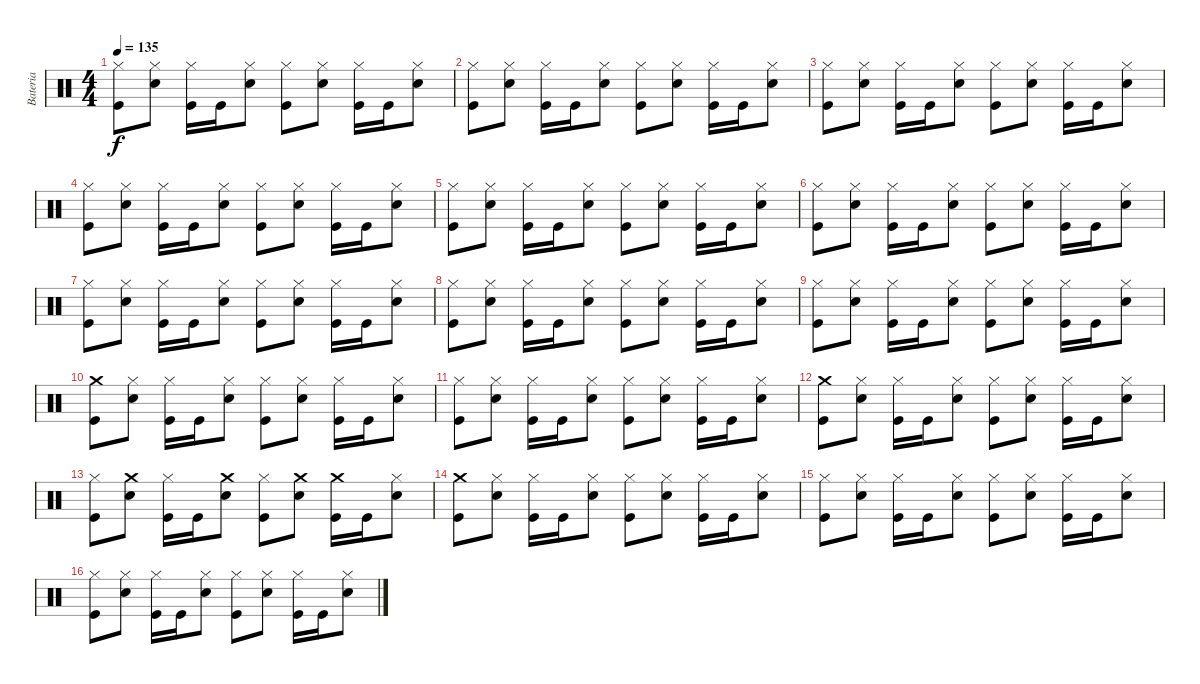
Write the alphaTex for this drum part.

\track ("Bateria" "Bateria") {instrument percussion}
\staff {score}
\articulation defaults
\ts (4 4)
\tempo 135
\clef neutral
\ks c
("Kick (hit)" "Hi-Hat (closed)").8{dy f} ("Snare (hit) 2" "Hi-Hat (closed)").8 ("Kick (hit)" "Hi-Hat (closed)").16 "Kick (hit)".16 ("Snare (hit) 2" "Hi-Hat (closed)").8 ("Kick (hit)" "Hi-Hat (closed)").8 ("Snare (hit) 2" "Hi-Hat (closed)").8 ("Kick (hit)" "Hi-Hat (closed)").16 "Kick (hit)".16 ("Snare (hit) 2" "Hi-Hat (closed)").8 |
("Kick (hit)" "Hi-Hat (closed)").8 ("Snare (hit) 2" "Hi-Hat (closed)").8 ("Kick (hit)" "Hi-Hat (closed)").16 "Kick (hit)".16 ("Snare (hit) 2" "Hi-Hat (closed)").8 ("Kick (hit)" "Hi-Hat (closed)").8 ("Snare (hit) 2" "Hi-Hat (closed)").8 ("Kick (hit)" "Hi-Hat (closed)").16 "Kick (hit)".16 ("Snare (hit) 2" "Hi-Hat (closed)").8 |
("Kick (hit)" "Hi-Hat (closed)").8 ("Snare (hit) 2" "Hi-Hat (closed)").8 ("Kick (hit)" "Hi-Hat (closed)").16 "Kick (hit)".16 ("Snare (hit) 2" "Hi-Hat (closed)").8 ("Kick (hit)" "Hi-Hat (closed)").8 ("Snare (hit) 2" "Hi-Hat (closed)").8 ("Kick (hit)" "Hi-Hat (closed)").16 "Kick (hit)".16 ("Snare (hit) 2" "Hi-Hat (closed)").8 |
("Kick (hit)" "Hi-Hat (closed)").8 ("Snare (hit) 2" "Hi-Hat (closed)").8 ("Kick (hit)" "Hi-Hat (closed)").16 "Kick (hit)".16 ("Snare (hit) 2" "Hi-Hat (closed)").8 ("Kick (hit)" "Hi-Hat (closed)").8 ("Snare (hit) 2" "Hi-Hat (closed)").8 ("Kick (hit)" "Hi-Hat (closed)").16 "Kick (hit)".16 ("Snare (hit) 2" "Hi-Hat (closed)").8 |
("Kick (hit)" "Hi-Hat (closed)").8 ("Snare (hit) 2" "Hi-Hat (closed)").8 ("Kick (hit)" "Hi-Hat (closed)").16 "Kick (hit)".16 ("Snare (hit) 2" "Hi-Hat (closed)").8 ("Kick (hit)" "Hi-Hat (closed)").8 ("Snare (hit) 2" "Hi-Hat (closed)").8 ("Kick (hit)" "Hi-Hat (closed)").16 "Kick (hit)".16 ("Snare (hit) 2" "Hi-Hat (closed)").8 |
("Kick (hit)" "Hi-Hat (closed)").8 ("Snare (hit) 2" "Hi-Hat (closed)").8 ("Kick (hit)" "Hi-Hat (closed)").16 "Kick (hit)".16 ("Snare (hit) 2" "Hi-Hat (closed)").8 ("Kick (hit)" "Hi-Hat (closed)").8 ("Snare (hit) 2" "Hi-Hat (closed)").8 ("Kick (hit)" "Hi-Hat (closed)").16 "Kick (hit)".16 ("Snare (hit) 2" "Hi-Hat (closed)").8 |
("Kick (hit)" "Hi-Hat (closed)").8 ("Snare (hit) 2" "Hi-Hat (closed)").8 ("Kick (hit)" "Hi-Hat (closed)").16 "Kick (hit)".16 ("Snare (hit) 2" "Hi-Hat (closed)").8 ("Kick (hit)" "Hi-Hat (closed)").8 ("Snare (hit) 2" "Hi-Hat (closed)").8 ("Kick (hit)" "Hi-Hat (closed)").16 "Kick (hit)".16 ("Snare (hit) 2" "Hi-Hat (closed)").8 |
("Kick (hit)" "Hi-Hat (closed)").8 ("Snare (hit) 2" "Hi-Hat (closed)").8 ("Kick (hit)" "Hi-Hat (closed)").16 "Kick (hit)".16 ("Snare (hit) 2" "Hi-Hat (closed)").8 ("Kick (hit)" "Hi-Hat (closed)").8 ("Snare (hit) 2" "Hi-Hat (closed)").8 ("Kick (hit)" "Hi-Hat (closed)").16 "Kick (hit)".16 ("Snare (hit) 2" "Hi-Hat (closed)").8 |
("Kick (hit)" "Hi-Hat (closed)").8 ("Snare (hit) 2" "Hi-Hat (closed)").8 ("Kick (hit)" "Hi-Hat (closed)").16 "Kick (hit)".16 ("Snare (hit) 2" "Hi-Hat (closed)").8 ("Kick (hit)" "Hi-Hat (closed)").8 ("Snare (hit) 2" "Hi-Hat (closed)").8 ("Kick (hit)" "Hi-Hat (closed)").16 "Kick (hit)".16 ("Snare (hit) 2" "Hi-Hat (closed)").8 |
("Kick (hit)" "Crash medium (hit)").8 ("Snare (hit) 2" "Hi-Hat (closed)").8 ("Kick (hit)" "Hi-Hat (closed)").16 "Kick (hit)".16 ("Snare (hit) 2" "Hi-Hat (closed)").8 ("Kick (hit)" "Hi-Hat (closed)").8 ("Snare (hit) 2" "Hi-Hat (closed)").8 ("Kick (hit)" "Hi-Hat (closed)").16 "Kick (hit)".16 ("Snare (hit) 2" "Hi-Hat (closed)").8 |
("Kick (hit)" "Hi-Hat (closed)").8 ("Snare (hit) 2" "Hi-Hat (closed)").8 ("Kick (hit)" "Hi-Hat (closed)").16 "Kick (hit)".16 ("Snare (hit) 2" "Hi-Hat (closed)").8 ("Kick (hit)" "Hi-Hat (closed)").8 ("Snare (hit) 2" "Hi-Hat (closed)").8 ("Kick (hit)" "Hi-Hat (closed)").16 "Kick (hit)".16 ("Snare (hit) 2" "Hi-Hat (closed)").8 |
("Kick (hit)" "Crash medium (hit)").8 ("Snare (hit) 2" "Hi-Hat (closed)").8 ("Kick (hit)" "Hi-Hat (closed)").16 "Kick (hit)".16 ("Snare (hit) 2" "Hi-Hat (closed)").8 ("Kick (hit)" "Hi-Hat (closed)").8 ("Snare (hit) 2" "Hi-Hat (closed)").8 ("Kick (hit)" "Hi-Hat (closed)").16 "Kick (hit)".16 ("Snare (hit) 2" "Hi-Hat (closed)").8 |
("Kick (hit)" "Hi-Hat (closed)").8 ("Snare (hit) 2" "Crash medium (hit)").8 ("Kick (hit)" "Hi-Hat (closed)").16 "Kick (hit)".16 ("Snare (hit) 2" "Crash medium (hit)").8 ("Kick (hit)" "Hi-Hat (closed)").8 ("Snare (hit) 2" "Crash medium (hit)").8 ("Kick (hit)" "Crash medium (hit)").16 "Kick (hit)".16 ("Snare (hit) 2" "Hi-Hat (closed)").8 |
("Kick (hit)" "Crash medium (hit)").8 ("Snare (hit) 2" "Hi-Hat (closed)").8 ("Kick (hit)" "Hi-Hat (closed)").16 "Kick (hit)".16 ("Snare (hit) 2" "Hi-Hat (closed)").8 ("Kick (hit)" "Hi-Hat (closed)").8 ("Snare (hit) 2" "Hi-Hat (closed)").8 ("Kick (hit)" "Hi-Hat (closed)").16 "Kick (hit)".16 ("Snare (hit) 2" "Hi-Hat (closed)").8 |
("Kick (hit)" "Hi-Hat (closed)").8 ("Snare (hit) 2" "Hi-Hat (closed)").8 ("Kick (hit)" "Hi-Hat (closed)").16 "Kick (hit)".16 ("Snare (hit) 2" "Hi-Hat (closed)").8 ("Kick (hit)" "Hi-Hat (closed)").8 ("Snare (hit) 2" "Hi-Hat (closed)").8 ("Kick (hit)" "Hi-Hat (closed)").16 "Kick (hit)".16 ("Snare (hit) 2" "Hi-Hat (closed)").8 |
("Kick (hit)" "Hi-Hat (closed)").8 ("Snare (hit) 2" "Hi-Hat (closed)").8 ("Kick (hit)" "Hi-Hat (closed)").16 "Kick (hit)".16 ("Snare (hit) 2" "Hi-Hat (closed)").8 ("Kick (hit)" "Hi-Hat (closed)").8 ("Snare (hit) 2" "Hi-Hat (closed)").8 ("Kick (hit)" "Hi-Hat (closed)").16 "Kick (hit)".16 ("Snare (hit) 2" "Hi-Hat (closed)").8
